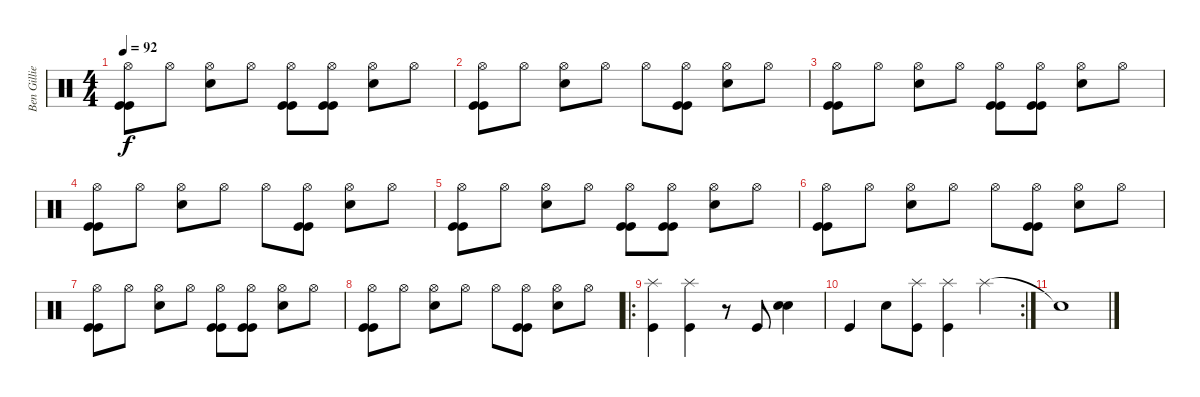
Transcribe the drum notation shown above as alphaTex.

\track ("Ben Gillies (Drums)" "Ben Gillie") {instrument percussion}
\staff {score}
\articulation defaults
\ts (4 4)
\tempo 92
\clef neutral
\ks c
("Hi-Hat (open)" "Kick (hit)" "Kick (hit)").8{dy f} "Hi-Hat (open)".8 ("Electric Snare (hit)" "Hi-Hat (open)").8 "Hi-Hat (open)".8 ("Hi-Hat (open)" "Kick (hit)" "Kick (hit)").8 ("Hi-Hat (open)" "Kick (hit)" "Kick (hit)").8 ("Electric Snare (hit)" "Hi-Hat (open)").8 "Hi-Hat (open)".8 |
("Hi-Hat (open)" "Kick (hit)" "Kick (hit)").8 "Hi-Hat (open)".8 ("Electric Snare (hit)" "Hi-Hat (open)").8 "Hi-Hat (open)".8 "Hi-Hat (open)".8 ("Hi-Hat (open)" "Kick (hit)" "Kick (hit)").8 ("Electric Snare (hit)" "Hi-Hat (open)").8 "Hi-Hat (open)".8 |
("Hi-Hat (open)" "Kick (hit)" "Kick (hit)").8 "Hi-Hat (open)".8 ("Electric Snare (hit)" "Hi-Hat (open)").8 "Hi-Hat (open)".8 ("Hi-Hat (open)" "Kick (hit)" "Kick (hit)").8 ("Hi-Hat (open)" "Kick (hit)" "Kick (hit)").8 ("Electric Snare (hit)" "Hi-Hat (open)").8 "Hi-Hat (open)".8 |
("Hi-Hat (open)" "Kick (hit)" "Kick (hit)").8 "Hi-Hat (open)".8 ("Electric Snare (hit)" "Hi-Hat (open)").8 "Hi-Hat (open)".8 "Hi-Hat (open)".8 ("Hi-Hat (open)" "Kick (hit)" "Kick (hit)").8 ("Electric Snare (hit)" "Hi-Hat (open)").8 "Hi-Hat (open)".8 |
("Hi-Hat (open)" "Kick (hit)" "Kick (hit)").8 "Hi-Hat (open)".8 ("Electric Snare (hit)" "Hi-Hat (open)").8 "Hi-Hat (open)".8 ("Hi-Hat (open)" "Kick (hit)" "Kick (hit)").8 ("Hi-Hat (open)" "Kick (hit)" "Kick (hit)").8 ("Electric Snare (hit)" "Hi-Hat (open)").8 "Hi-Hat (open)".8 |
("Hi-Hat (open)" "Kick (hit)" "Kick (hit)").8 "Hi-Hat (open)".8 ("Electric Snare (hit)" "Hi-Hat (open)").8 "Hi-Hat (open)".8 "Hi-Hat (open)".8 ("Hi-Hat (open)" "Kick (hit)" "Kick (hit)").8 ("Electric Snare (hit)" "Hi-Hat (open)").8 "Hi-Hat (open)".8 |
("Hi-Hat (open)" "Kick (hit)" "Kick (hit)").8 "Hi-Hat (open)".8 ("Electric Snare (hit)" "Hi-Hat (open)").8 "Hi-Hat (open)".8 ("Hi-Hat (open)" "Kick (hit)" "Kick (hit)").8 ("Hi-Hat (open)" "Kick (hit)" "Kick (hit)").8 ("Electric Snare (hit)" "Hi-Hat (open)").8 "Hi-Hat (open)".8 |
("Hi-Hat (open)" "Kick (hit)" "Kick (hit)").8 "Hi-Hat (open)".8 ("Electric Snare (hit)" "Hi-Hat (open)").8 "Hi-Hat (open)".8 "Hi-Hat (open)".8 ("Hi-Hat (open)" "Kick (hit)" "Kick (hit)").8 ("Electric Snare (hit)" "Hi-Hat (open)").8 "Hi-Hat (open)".8 |
\ro
("Splash (hit)" "Kick (hit)").4 ("Splash (hit)" "Kick (hit)").4 r.8 "Kick (hit)".8 ("Electric Snare (hit)" "Electric Snare (hit)").4 |
\rc 2 "Kick (hit)".4 "Electric Snare (hit)".8
("Splash (hit)" "Kick (hit)").8 ("Splash (hit)" "Kick (hit)").4 "Splash (hit)".4 |
"Snare (hit)"{t}.1
